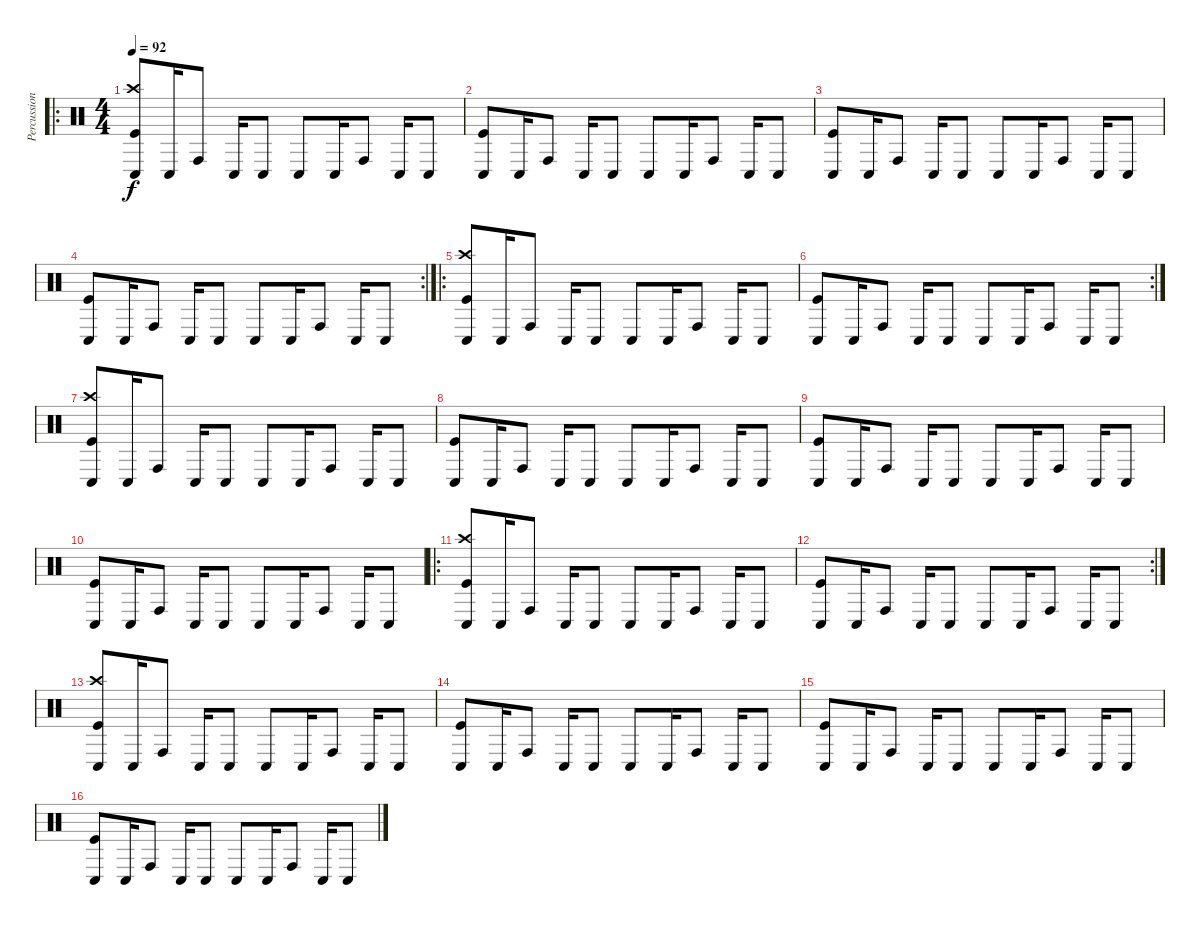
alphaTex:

\track ("Percussion" "Percussion") {instrument percussion}
\staff {score}
\articulation defaults
\ro
\ts (4 4)
\tempo 92
\clef neutral
\ks c
("Kick (hit)" "Crash high (hit)" "Conga low (hit)").8{dy f} "Conga low (hit)".16 "Conga high (hit)".8 "Conga low (hit)".16 "Conga low (hit)".8 "Conga low (hit)".8 "Conga low (hit)".16 "Conga high (hit)".8 "Conga low (hit)".16 "Conga low (hit)".8 |
("Kick (hit)" "Conga low (hit)").8 "Conga low (hit)".16 "Conga high (hit)".8 "Conga low (hit)".16 "Conga low (hit)".8 "Conga low (hit)".8 "Conga low (hit)".16 "Conga high (hit)".8 "Conga low (hit)".16 "Conga low (hit)".8 |
("Kick (hit)" "Conga low (hit)").8 "Conga low (hit)".16 "Conga high (hit)".8 "Conga low (hit)".16 "Conga low (hit)".8 "Conga low (hit)".8 "Conga low (hit)".16 "Conga high (hit)".8 "Conga low (hit)".16 "Conga low (hit)".8 |
\rc 2
("Kick (hit)" "Conga low (hit)").8 "Conga low (hit)".16 "Conga high (hit)".8 "Conga low (hit)".16 "Conga low (hit)".8 "Conga low (hit)".8 "Conga low (hit)".16 "Conga high (hit)".8 "Conga low (hit)".16 "Conga low (hit)".8 |
\ro
("Kick (hit)" "Crash high (hit)" "Conga low (hit)").8 "Conga low (hit)".16 "Conga high (hit)".8 "Conga low (hit)".16 "Conga low (hit)".8 "Conga low (hit)".8 "Conga low (hit)".16 "Conga high (hit)".8 "Conga low (hit)".16 "Conga low (hit)".8 |
\rc 2
("Kick (hit)" "Conga low (hit)").8 "Conga low (hit)".16 "Conga high (hit)".8 "Conga low (hit)".16 "Conga low (hit)".8 "Conga low (hit)".8 "Conga low (hit)".16 "Conga high (hit)".8 "Conga low (hit)".16 "Conga low (hit)".8 |
("Kick (hit)" "Crash high (hit)" "Conga low (hit)").8 "Conga low (hit)".16 "Conga high (hit)".8 "Conga low (hit)".16 "Conga low (hit)".8 "Conga low (hit)".8 "Conga low (hit)".16 "Conga high (hit)".8 "Conga low (hit)".16 "Conga low (hit)".8 |
("Kick (hit)" "Conga low (hit)").8 "Conga low (hit)".16 "Conga high (hit)".8 "Conga low (hit)".16 "Conga low (hit)".8 "Conga low (hit)".8 "Conga low (hit)".16 "Conga high (hit)".8 "Conga low (hit)".16 "Conga low (hit)".8 |
("Kick (hit)" "Conga low (hit)").8 "Conga low (hit)".16 "Conga high (hit)".8 "Conga low (hit)".16 "Conga low (hit)".8 "Conga low (hit)".8 "Conga low (hit)".16 "Conga high (hit)".8 "Conga low (hit)".16 "Conga low (hit)".8 |
("Kick (hit)" "Conga low (hit)").8 "Conga low (hit)".16 "Conga high (hit)".8 "Conga low (hit)".16 "Conga low (hit)".8 "Conga low (hit)".8 "Conga low (hit)".16 "Conga high (hit)".8 "Conga low (hit)".16 "Conga low (hit)".8 |
\ro
("Kick (hit)" "Crash high (hit)" "Conga low (hit)").8 "Conga low (hit)".16 "Conga high (hit)".8 "Conga low (hit)".16 "Conga low (hit)".8 "Conga low (hit)".8 "Conga low (hit)".16 "Conga high (hit)".8 "Conga low (hit)".16 "Conga low (hit)".8 |
\rc 2
("Kick (hit)" "Conga low (hit)").8 "Conga low (hit)".16 "Conga high (hit)".8 "Conga low (hit)".16 "Conga low (hit)".8 "Conga low (hit)".8 "Conga low (hit)".16 "Conga high (hit)".8 "Conga low (hit)".16 "Conga low (hit)".8 |
("Kick (hit)" "Crash high (hit)" "Conga low (hit)").8 "Conga low (hit)".16 "Conga high (hit)".8 "Conga low (hit)".16 "Conga low (hit)".8 "Conga low (hit)".8 "Conga low (hit)".16 "Conga high (hit)".8 "Conga low (hit)".16 "Conga low (hit)".8 |
("Kick (hit)" "Conga low (hit)").8 "Conga low (hit)".16 "Conga high (hit)".8 "Conga low (hit)".16 "Conga low (hit)".8 "Conga low (hit)".8 "Conga low (hit)".16 "Conga high (hit)".8 "Conga low (hit)".16 "Conga low (hit)".8 |
("Kick (hit)" "Conga low (hit)").8 "Conga low (hit)".16 "Conga high (hit)".8 "Conga low (hit)".16 "Conga low (hit)".8 "Conga low (hit)".8 "Conga low (hit)".16 "Conga high (hit)".8 "Conga low (hit)".16 "Conga low (hit)".8 |
("Kick (hit)" "Conga low (hit)").8 "Conga low (hit)".16 "Conga high (hit)".8 "Conga low (hit)".16 "Conga low (hit)".8 "Conga low (hit)".8 "Conga low (hit)".16 "Conga high (hit)".8 "Conga low (hit)".16 "Conga low (hit)".8
